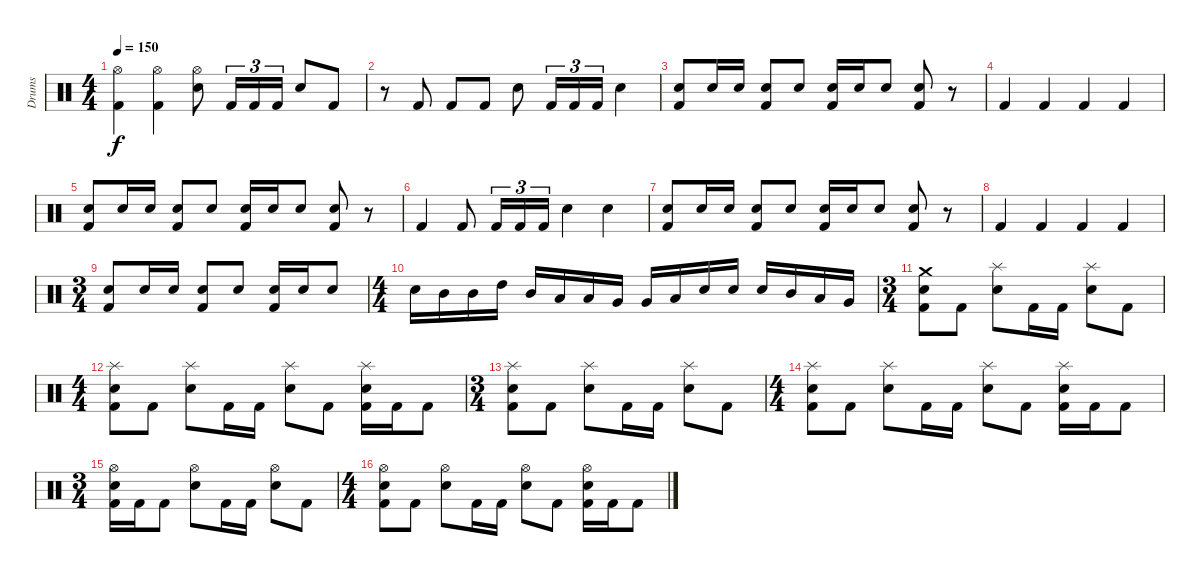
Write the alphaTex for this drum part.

\track ("Drums" "Drums") {instrument percussion}
\staff {score}
\articulation defaults
\ts (4 4)
\tempo 150
\clef neutral
\ks c
("Hi-Hat (open)" "Kick (hit) 2").4{dy f} ("Hi-Hat (open)" "Kick (hit) 2").4 ("Hi-Hat (open)" "Electric Snare (hit)").8 "Kick (hit) 2".16{tu (3 2)} "Kick (hit) 2".16{tu (3 2)} "Kick (hit) 2".16{tu (3 2)} "Electric Snare (hit)".8 "Kick (hit) 2".8 |
r.8 "Kick (hit) 2".8 "Kick (hit) 2".8 "Kick (hit) 2".8 "Electric Snare (hit)".8 "Kick (hit) 2".16{tu (3 2)} "Kick (hit) 2".16{tu (3 2)} "Kick (hit) 2".16{tu (3 2)} "Electric Snare (hit)".4 |
("Electric Snare (hit)" "Kick (hit) 2").8 "Electric Snare (hit)".16 "Electric Snare (hit)".16 ("Electric Snare (hit)" "Kick (hit) 2").8 "Electric Snare (hit)".8 ("Electric Snare (hit)" "Kick (hit) 2").16 "Electric Snare (hit)".16 "Electric Snare (hit)".8 ("Electric Snare (hit)" "Kick (hit) 2").8 r.8 |
"Kick (hit) 2".4 "Kick (hit) 2".4 "Kick (hit) 2".4 "Kick (hit) 2".4 |
("Electric Snare (hit)" "Kick (hit) 2").8 "Electric Snare (hit)".16 "Electric Snare (hit)".16 ("Electric Snare (hit)" "Kick (hit) 2").8 "Electric Snare (hit)".8 ("Electric Snare (hit)" "Kick (hit) 2").16 "Electric Snare (hit)".16 "Electric Snare (hit)".8 ("Electric Snare (hit)" "Kick (hit) 2").8 r.8 |
"Kick (hit) 2".4 "Kick (hit) 2".8 "Kick (hit) 2".16{tu (3 2)} "Kick (hit) 2".16{tu (3 2)} "Kick (hit) 2".16{tu (3 2)} "Electric Snare (hit)".4 "Electric Snare (hit)".4 |
("Electric Snare (hit)" "Kick (hit) 2").8 "Electric Snare (hit)".16 "Electric Snare (hit)".16 ("Electric Snare (hit)" "Kick (hit) 2").8 "Electric Snare (hit)".8 ("Electric Snare (hit)" "Kick (hit) 2").16 "Electric Snare (hit)".16 "Electric Snare (hit)".8 ("Electric Snare (hit)" "Kick (hit) 2").8 r.8 |
"Kick (hit) 2".4 "Kick (hit) 2".4 "Kick (hit) 2".4 "Kick (hit) 2".4 |
\ts (3 4)
("Electric Snare (hit)" "Kick (hit) 2").8 "Electric Snare (hit)".16 "Electric Snare (hit)".16 ("Electric Snare (hit)" "Kick (hit) 2").8 "Electric Snare (hit)".8 ("Electric Snare (hit)" "Kick (hit) 2").16 "Electric Snare (hit)".16 "Electric Snare (hit)".8 |
\ts (4 4)
"Electric Snare (hit)".16 "Mid Tom (hit)".16 "Mid Tom (hit)".16 "High Tom (hit)".16 "Mid Tom (hit)".16 "Low Tom (hit)".16 "Low Tom (hit)".16 "Very Low Tom (hit)".16 "Very Low Tom (hit)".16 "Low Tom (hit)".16 "Electric Snare (hit)".16 "Electric Snare (hit)".16 "Electric Snare (hit)".16 "Mid Tom (hit)".16 "Low Tom (hit)".16 "Very Low Tom (hit)".16 |
\ts (3 4)
("Crash medium (hit)" "Electric Snare (hit)" "Kick (hit) 2").8 "Kick (hit) 2".8 ("Splash (hit)" "Electric Snare (hit)").8 "Kick (hit) 2".16 "Kick (hit) 2".16 ("Splash (hit)" "Electric Snare (hit)").8 "Kick (hit) 2".8 |
\ts (4 4)
("Splash (hit)" "Electric Snare (hit)" "Kick (hit) 2").8 "Kick (hit) 2".8 ("Splash (hit)" "Electric Snare (hit)").8 "Kick (hit) 2".16 "Kick (hit) 2".16 ("Splash (hit)" "Electric Snare (hit)").8 "Kick (hit) 2".8 ("Splash (hit)" "Electric Snare (hit)" "Kick (hit) 2").16 "Kick (hit) 2".16 "Kick (hit) 2".8 |
\ts (3 4)
("Splash (hit)" "Electric Snare (hit)" "Kick (hit) 2").8 "Kick (hit) 2".8 ("Splash (hit)" "Electric Snare (hit)").8 "Kick (hit) 2".16 "Kick (hit) 2".16 ("Splash (hit)" "Electric Snare (hit)").8 "Kick (hit) 2".8 |
\ts (4 4)
("Splash (hit)" "Electric Snare (hit)" "Kick (hit) 2").8 "Kick (hit) 2".8 ("Splash (hit)" "Electric Snare (hit)").8 "Kick (hit) 2".16 "Kick (hit) 2".16 ("Splash (hit)" "Electric Snare (hit)").8 "Kick (hit) 2".8 ("Splash (hit)" "Electric Snare (hit)" "Kick (hit) 2").16 "Kick (hit) 2".16 "Kick (hit) 2".8 |
\ts (3 4)
("Hi-Hat (open)" "Electric Snare (hit)" "Kick (hit) 2").16 "Kick (hit) 2".16 "Kick (hit) 2".8 ("Hi-Hat (open)" "Electric Snare (hit)").8 "Kick (hit) 2".16 "Kick (hit) 2".16 ("Hi-Hat (open)" "Electric Snare (hit)").8 "Kick (hit) 2".8 |
\ts (4 4)
("Hi-Hat (open)" "Electric Snare (hit)" "Kick (hit) 2").8 "Kick (hit) 2".8 ("Hi-Hat (open)" "Electric Snare (hit)").8 "Kick (hit) 2".16 "Kick (hit) 2".16 ("Hi-Hat (open)" "Electric Snare (hit)").8 "Kick (hit) 2".8 ("Hi-Hat (open)" "Electric Snare (hit)" "Kick (hit) 2").16 "Kick (hit) 2".16 "Kick (hit) 2".8
